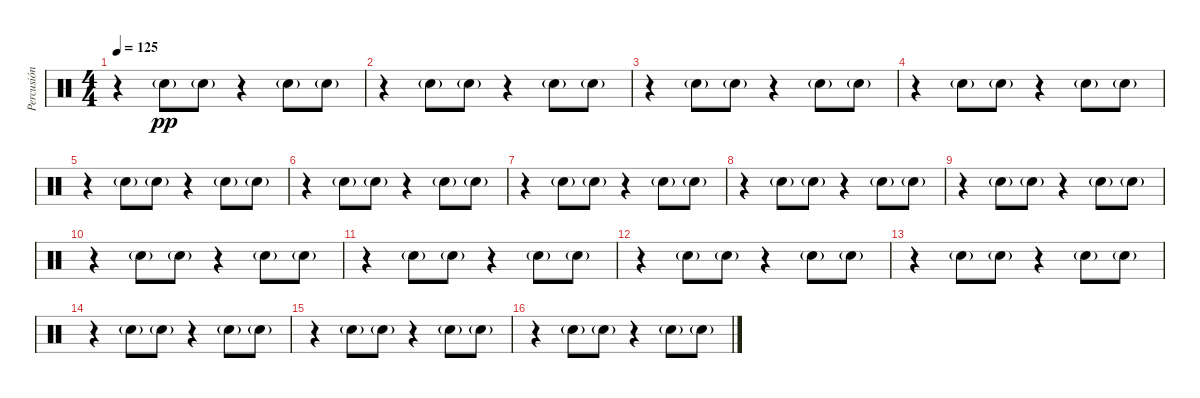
\track ("Percusión" "Percusión") {instrument percussion}
\staff {score}
\articulation defaults
\ts (4 4)
\tempo 125
\clef neutral
\ks c
r.4{dy pp} "Snare (hit) 2"{g}.8 "Snare (hit) 2"{g}.8 r.4 "Snare (hit) 2"{g}.8 "Snare (hit) 2"{g}.8 |
r.4 "Snare (hit) 2"{g}.8 "Snare (hit) 2"{g}.8 r.4 "Snare (hit) 2"{g}.8 "Snare (hit) 2"{g}.8 |
r.4 "Snare (hit) 2"{g}.8 "Snare (hit) 2"{g}.8 r.4 "Snare (hit) 2"{g}.8 "Snare (hit) 2"{g}.8 |
r.4 "Snare (hit) 2"{g}.8 "Snare (hit) 2"{g}.8 r.4 "Snare (hit) 2"{g}.8 "Snare (hit) 2"{g}.8 |
r.4 "Snare (hit) 2"{g}.8 "Snare (hit) 2"{g}.8 r.4 "Snare (hit) 2"{g}.8 "Snare (hit) 2"{g}.8 |
r.4 "Snare (hit) 2"{g}.8 "Snare (hit) 2"{g}.8 r.4 "Snare (hit) 2"{g}.8 "Snare (hit) 2"{g}.8 |
r.4 "Snare (hit) 2"{g}.8 "Snare (hit) 2"{g}.8 r.4 "Snare (hit) 2"{g}.8 "Snare (hit) 2"{g}.8 |
r.4 "Snare (hit) 2"{g}.8 "Snare (hit) 2"{g}.8 r.4 "Snare (hit) 2"{g}.8 "Snare (hit) 2"{g}.8 |
r.4 "Snare (hit) 2"{g}.8 "Snare (hit) 2"{g}.8 r.4 "Snare (hit) 2"{g}.8 "Snare (hit) 2"{g}.8 |
r.4 "Snare (hit) 2"{g}.8 "Snare (hit) 2"{g}.8 r.4 "Snare (hit) 2"{g}.8 "Snare (hit) 2"{g}.8 |
r.4 "Snare (hit) 2"{g}.8 "Snare (hit) 2"{g}.8 r.4 "Snare (hit) 2"{g}.8 "Snare (hit) 2"{g}.8 |
r.4 "Snare (hit) 2"{g}.8 "Snare (hit) 2"{g}.8 r.4 "Snare (hit) 2"{g}.8 "Snare (hit) 2"{g}.8 |
r.4 "Snare (hit) 2"{g}.8 "Snare (hit) 2"{g}.8 r.4 "Snare (hit) 2"{g}.8 "Snare (hit) 2"{g}.8 |
r.4 "Snare (hit) 2"{g}.8 "Snare (hit) 2"{g}.8 r.4 "Snare (hit) 2"{g}.8 "Snare (hit) 2"{g}.8 |
r.4 "Snare (hit) 2"{g}.8 "Snare (hit) 2"{g}.8 r.4 "Snare (hit) 2"{g}.8 "Snare (hit) 2"{g}.8 |
r.4 "Snare (hit) 2"{g}.8 "Snare (hit) 2"{g}.8 r.4 "Snare (hit) 2"{g}.8 "Snare (hit) 2"{g}.8
